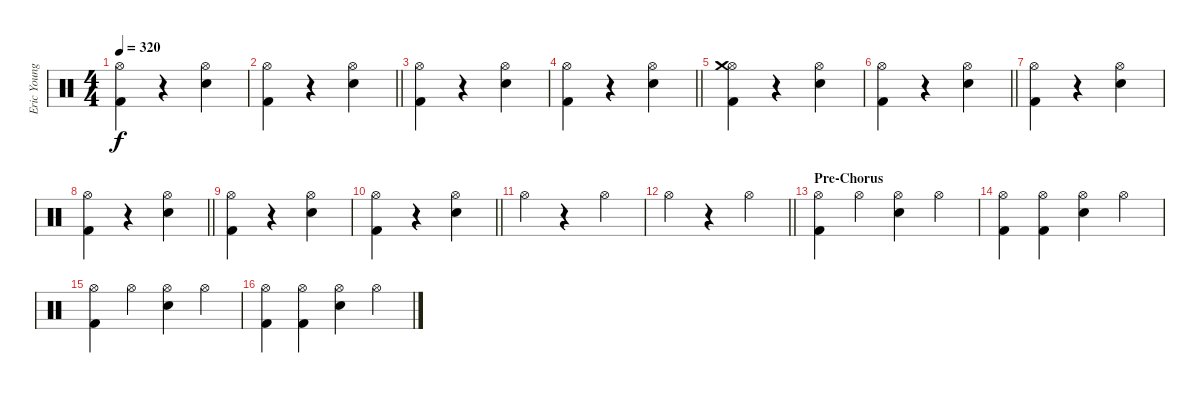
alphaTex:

\track ("Eric Young (Drums)" "Eric Young") {instrument percussion}
\staff {score}
\articulation defaults
\ts (4 4)
\tempo 320
\clef neutral
\ks c
("Hi-Hat (open)" "Kick (hit) 2").4{dy f} r.4 ("Hi-Hat (open)" "Snare (hit) 2").4 |
\barLineRight lightlight
("Hi-Hat (open)" "Kick (hit) 2").4 r.4 ("Hi-Hat (open)" "Snare (hit) 2").4 |
("Hi-Hat (open)" "Kick (hit) 2").4 r.4 ("Hi-Hat (open)" "Snare (hit) 2").4 |
\barLineRight lightlight
("Hi-Hat (open)" "Kick (hit) 2").4 r.4 ("Hi-Hat (open)" "Snare (hit) 2").4 |
("Hi-Hat (open)" "Kick (hit) 2" "Crash medium (hit)").4 r.4 ("Hi-Hat (open)" "Snare (hit) 2").4 |
\barLineRight lightlight
("Hi-Hat (open)" "Kick (hit) 2").4 r.4 ("Hi-Hat (open)" "Snare (hit) 2").4 |
("Hi-Hat (open)" "Kick (hit) 2").4 r.4 ("Hi-Hat (open)" "Snare (hit) 2").4 |
\barLineRight lightlight
("Hi-Hat (open)" "Kick (hit) 2").4 r.4 ("Hi-Hat (open)" "Snare (hit) 2").4 |
("Hi-Hat (open)" "Kick (hit) 2").4 r.4 ("Hi-Hat (open)" "Snare (hit) 2").4 |
\barLineRight lightlight
("Hi-Hat (open)" "Kick (hit) 2").4 r.4 ("Hi-Hat (open)" "Snare (hit) 2").4 |
"Hi-Hat (open)".4 r.4 "Hi-Hat (open)".4 |
\barLineRight lightlight "Hi-Hat (open)".4
r.4 "Hi-Hat (open)".4 |
\section ("" "Pre-Chorus")
("Hi-Hat (open)" "Kick (hit) 2").4 "Hi-Hat (open)".4 ("Hi-Hat (open)" "Snare (hit) 2").4 "Hi-Hat (open)".4 |
("Hi-Hat (open)" "Kick (hit) 2").4 ("Hi-Hat (open)" "Kick (hit) 2").4 ("Hi-Hat (open)" "Snare (hit) 2").4 "Hi-Hat (open)".4 |
("Hi-Hat (open)" "Kick (hit) 2").4 "Hi-Hat (open)".4 ("Hi-Hat (open)" "Snare (hit) 2").4 "Hi-Hat (open)".4 |
("Hi-Hat (open)" "Kick (hit) 2").4 ("Hi-Hat (open)" "Kick (hit) 2").4 ("Hi-Hat (open)" "Snare (hit) 2").4 "Hi-Hat (open)".4
